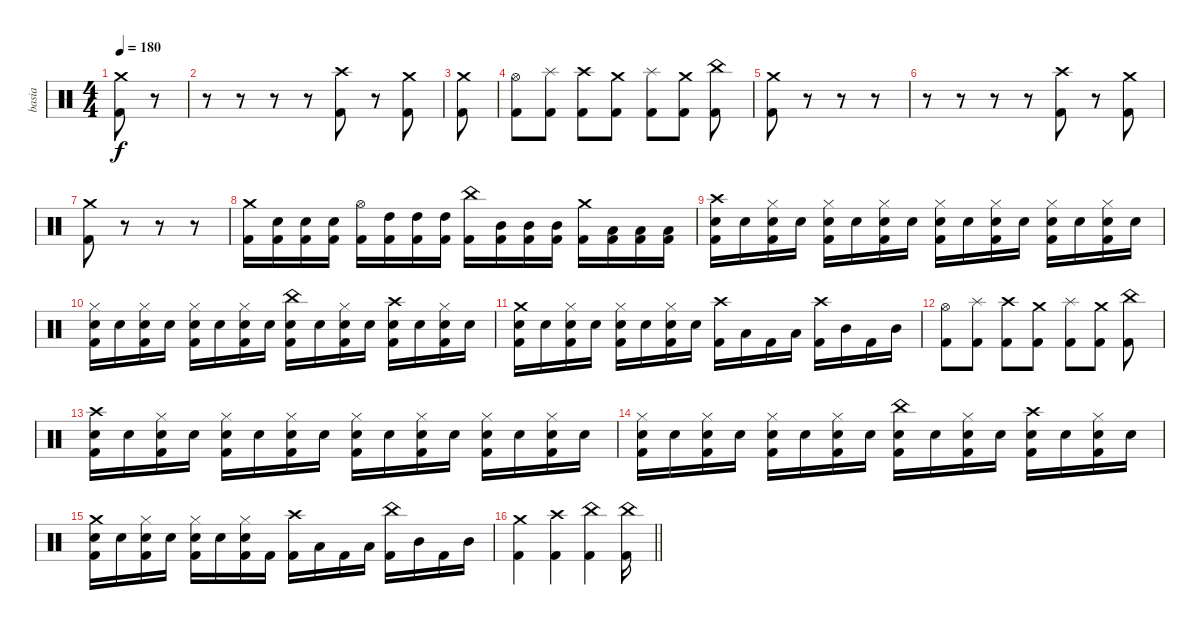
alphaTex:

\track ("basia" "basia") {instrument percussion}
\staff {score}
\articulation defaults
\ts (4 4)
\tempo 180
\clef neutral
\ks c
("Crash medium (hit)" "Kick (hit) 2").8{dy f} r.8 |
r.8 r.8 r.8 r.8 ("Crash high (hit)" "Kick (hit) 2").8 r.8 ("Crash medium (hit)" "Kick (hit) 2").8 |
("Crash medium (hit)" "Kick (hit) 2").8 |
("Hi-Hat (open)" "Kick (hit) 2").8 ("Splash (hit)" "Kick (hit) 2").8 ("Crash high (hit)" "Kick (hit) 2").8 ("Crash medium (hit)" "Kick (hit) 2").8 ("Splash (hit)" "Kick (hit) 2").8 ("Crash medium (hit)" "Kick (hit) 2").8 ("China (hit)" "Kick (hit) 2").8 |
("Crash medium (hit)" "Kick (hit) 2").8 r.8 r.8 r.8 |
r.8 r.8 r.8 r.8 ("Crash high (hit)" "Kick (hit) 2").8 r.8 ("Crash medium (hit)" "Kick (hit) 2").8 |
("Crash medium (hit)" "Kick (hit) 2").8 r.8 r.8 r.8 |
("Crash medium (hit)" "Kick (hit) 2").16 ("Snare (hit) 2" "Kick (hit) 2").16 ("Snare (hit) 2" "Kick (hit) 2").16 ("Snare (hit) 2" "Kick (hit) 2").16 ("Hi-Hat (open)" "Kick (hit) 2").16 ("High Tom (hit)" "Kick (hit) 2").16 ("High Tom (hit)" "Kick (hit) 2").16 ("High Tom (hit)" "Kick (hit) 2").16 ("China (hit)" "Kick (hit) 2").16 ("Mid Tom (hit)" "Kick (hit) 2").16 ("Mid Tom (hit)" "Kick (hit) 2").16 ("Mid Tom (hit)" "Kick (hit) 2").16 ("Crash medium (hit)" "Kick (hit) 2").16 ("Low Tom (hit)" "Kick (hit) 2").16 ("Low Tom (hit)" "Kick (hit) 2").16 ("Low Tom (hit)" "Kick (hit) 2").16 |
("Crash high (hit)" "Snare (hit) 2" "Kick (hit) 2").16 "Snare (hit) 2".16 ("Hi-Hat (closed)" "Snare (hit) 2" "Kick (hit) 2").16 "Snare (hit) 2".16 ("Hi-Hat (closed)" "Snare (hit) 2" "Kick (hit) 2").16 "Snare (hit) 2".16 ("Hi-Hat (closed)" "Snare (hit) 2" "Kick (hit) 2").16 "Snare (hit) 2".16 ("Hi-Hat (closed)" "Snare (hit) 2" "Kick (hit) 2").16 "Snare (hit) 2".16 ("Hi-Hat (closed)" "Snare (hit) 2" "Kick (hit) 2").16 "Snare (hit) 2".16 ("Hi-Hat (closed)" "Snare (hit) 2" "Kick (hit) 2").16 "Snare (hit) 2".16 ("Hi-Hat (closed)" "Snare (hit) 2" "Kick (hit) 2").16 "Snare (hit) 2".16 |
("Hi-Hat (closed)" "Snare (hit) 2" "Kick (hit) 2").16 "Snare (hit) 2".16 ("Hi-Hat (closed)" "Snare (hit) 2" "Kick (hit) 2").16 "Snare (hit) 2".16 ("Hi-Hat (closed)" "Snare (hit) 2" "Kick (hit) 2").16 "Snare (hit) 2".16 ("Hi-Hat (closed)" "Snare (hit) 2" "Kick (hit) 2").16 "Snare (hit) 2".16 ("China (hit)" "Snare (hit) 2" "Kick (hit) 2").16 "Snare (hit) 2".16 ("Hi-Hat (closed)" "Snare (hit) 2" "Kick (hit) 2").16 "Snare (hit) 2".16 ("Crash high (hit)" "Snare (hit) 2" "Kick (hit) 2").16 "Snare (hit) 2".16 ("Hi-Hat (closed)" "Snare (hit) 2" "Kick (hit) 2").16 "Snare (hit) 2".16 |
("Crash medium (hit)" "Snare (hit) 2" "Kick (hit) 2").16 "Snare (hit) 2".16 ("Hi-Hat (closed)" "Snare (hit) 2" "Kick (hit) 2").16 "Snare (hit) 2".16 ("Hi-Hat (closed)" "Snare (hit) 2" "Kick (hit) 2").16 "Snare (hit) 2".16 ("Hi-Hat (closed)" "Snare (hit) 2" "Kick (hit) 2").16 "Snare (hit) 2".16 ("Crash high (hit)" "Kick (hit) 2").16 "Low Tom (hit)".16 "Kick (hit) 2".16 "Low Tom (hit)".16 ("Crash high (hit)" "Kick (hit) 2").16 "Mid Tom (hit)".16 "Kick (hit) 2".16 "Mid Tom (hit)".16 |
("Hi-Hat (open)" "Kick (hit) 2").8 ("Splash (hit)" "Kick (hit) 2").8 ("Crash high (hit)" "Kick (hit) 2").8 ("Crash medium (hit)" "Kick (hit) 2").8 ("Splash (hit)" "Kick (hit) 2").8 ("Crash medium (hit)" "Kick (hit) 2").8 ("China (hit)" "Kick (hit) 2").8 |
("Crash high (hit)" "Snare (hit) 2" "Kick (hit) 2").16 "Snare (hit) 2".16 ("Hi-Hat (closed)" "Snare (hit) 2" "Kick (hit) 2").16 "Snare (hit) 2".16 ("Hi-Hat (closed)" "Snare (hit) 2" "Kick (hit) 2").16 "Snare (hit) 2".16 ("Hi-Hat (closed)" "Snare (hit) 2" "Kick (hit) 2").16 "Snare (hit) 2".16 ("Hi-Hat (closed)" "Snare (hit) 2" "Kick (hit) 2").16 "Snare (hit) 2".16 ("Hi-Hat (closed)" "Snare (hit) 2" "Kick (hit) 2").16 "Snare (hit) 2".16 ("Hi-Hat (closed)" "Snare (hit) 2" "Kick (hit) 2").16 "Snare (hit) 2".16 ("Hi-Hat (closed)" "Snare (hit) 2" "Kick (hit) 2").16 "Snare (hit) 2".16 |
("Hi-Hat (closed)" "Snare (hit) 2" "Kick (hit) 2").16 "Snare (hit) 2".16 ("Hi-Hat (closed)" "Snare (hit) 2" "Kick (hit) 2").16 "Snare (hit) 2".16 ("Hi-Hat (closed)" "Snare (hit) 2" "Kick (hit) 2").16 "Snare (hit) 2".16 ("Hi-Hat (closed)" "Snare (hit) 2" "Kick (hit) 2").16 "Snare (hit) 2".16 ("China (hit)" "Snare (hit) 2" "Kick (hit) 2").16 "Snare (hit) 2".16 ("Hi-Hat (closed)" "Snare (hit) 2" "Kick (hit) 2").16 "Snare (hit) 2".16 ("Crash high (hit)" "Snare (hit) 2" "Kick (hit) 2").16 "Snare (hit) 2".16 ("Hi-Hat (closed)" "Snare (hit) 2" "Kick (hit) 2").16 "Snare (hit) 2".16 |
("Crash medium (hit)" "Snare (hit) 2" "Kick (hit) 2").16 "Snare (hit) 2".16 ("Hi-Hat (closed)" "Snare (hit) 2" "Kick (hit) 2").16 "Snare (hit) 2".16 ("Hi-Hat (closed)" "Snare (hit) 2" "Kick (hit) 2").16 "Snare (hit) 2".16 ("Hi-Hat (closed)" "Snare (hit) 2" "Kick (hit) 2").16 "Kick (hit) 2".16 ("Crash high (hit)" "Kick (hit) 2").16 "Low Tom (hit)".16 "Kick (hit) 2".16 "Low Tom (hit)".16 ("China (hit)" "Kick (hit) 2").16 "Mid Tom (hit)".16 "Kick (hit) 2".16 "Mid Tom (hit)".16 |
\barLineRight lightlight
("Crash medium (hit)" "Kick (hit) 2").4 ("Crash high (hit)" "Kick (hit) 2").4 ("China (hit)" "Kick (hit) 2").4 ("China (hit)" "Kick (hit) 2").16
